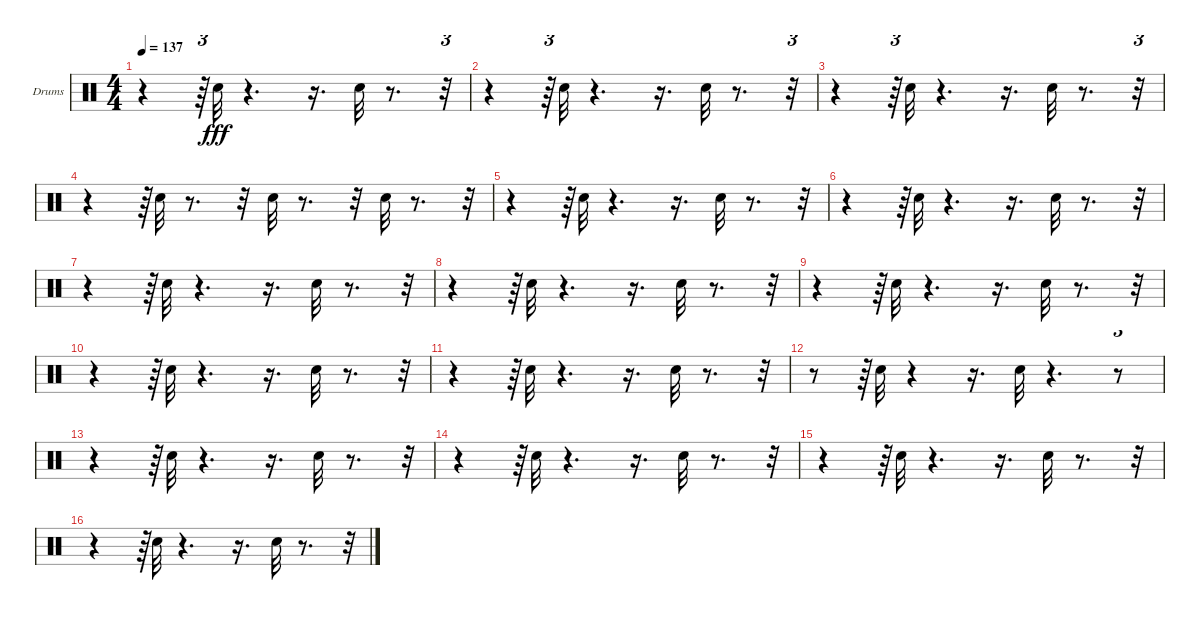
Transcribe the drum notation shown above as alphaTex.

\bracketExtendMode groupsimilarinstruments
\firstSystemTrackNameOrientation horizontal
\otherSystemsTrackNameOrientation horizontal
\track ("Drumkit" "Drums") {instrument percussion}
\staff {score}
\articulation defaults
\ts (4 4)
\tempo 137
\clef neutral
\ks c
r.4{dy fff} r.64{tu (3 2)} "Snare (hit) 2".32 r.4{d} r.16{d} "Snare (hit) 2".32 r.8{d} r.32{tu (3 2)} |
r.4 r.64{tu (3 2)} "Snare (hit) 2".32 r.4{d} r.16{d} "Snare (hit) 2".32 r.8{d} r.32{tu (3 2)} |
r.4 r.64{tu (3 2)} "Snare (hit) 2".32 r.4{d} r.16{d} "Snare (hit) 2".32 r.8{d} r.32{tu (3 2)} |
r.4 r.64{tu (3 2)} "Snare (hit) 2".32 r.8{d} r.32 "Snare (hit) 2".32 r.8{d} r.32 "Snare (hit) 2".32 r.8{d} r.32{tu (3 2)} |
r.4 r.64{tu (3 2)} "Snare (hit) 2".32 r.4{d} r.16{d} "Snare (hit) 2".32 r.8{d} r.32{tu (3 2)} |
r.4 r.64{tu (3 2)} "Snare (hit) 2".32 r.4{d} r.16{d} "Snare (hit) 2".32 r.8{d} r.32{tu (3 2)} |
r.4 r.64{tu (3 2)} "Snare (hit) 2".32 r.4{d} r.16{d} "Snare (hit) 2".32 r.8{d} r.32{tu (3 2)} |
r.4 r.64{tu (3 2)} "Snare (hit) 2".32 r.4{d} r.16{d} "Snare (hit) 2".32 r.8{d} r.32{tu (3 2)} |
r.4 r.64{tu (3 2)} "Snare (hit) 2".32 r.4{d} r.16{d} "Snare (hit) 2".32 r.8{d} r.32{tu (3 2)} |
r.4 r.64{tu (3 2)} "Snare (hit) 2".32 r.4{d} r.16{d} "Snare (hit) 2".32 r.8{d} r.32{tu (3 2)} |
r.4 r.64{tu (3 2)} "Snare (hit) 2".32 r.4{d} r.16{d} "Snare (hit) 2".32 r.8{d} r.32{tu (3 2)} |
r.8 r.64{tu (3 2)} "Snare (hit) 2".32 r.4 r.16{d} "Snare (hit) 2".32 r.4{d} r.8{tu (3 2)} |
r.4 r.64{tu (3 2)} "Snare (hit) 2".32 r.4{d} r.16{d} "Snare (hit) 2".32 r.8{d} r.32{tu (3 2)} |
r.4 r.64{tu (3 2)} "Snare (hit) 2".32 r.4{d} r.16{d} "Snare (hit) 2".32 r.8{d} r.32{tu (3 2)} |
r.4 r.64{tu (3 2)} "Snare (hit) 2".32 r.4{d} r.16{d} "Snare (hit) 2".32 r.8{d} r.32{tu (3 2)} |
r.4 r.64{tu (3 2)} "Snare (hit) 2".32 r.4{d} r.16{d} "Snare (hit) 2".32 r.8{d} r.32{tu (3 2)}
